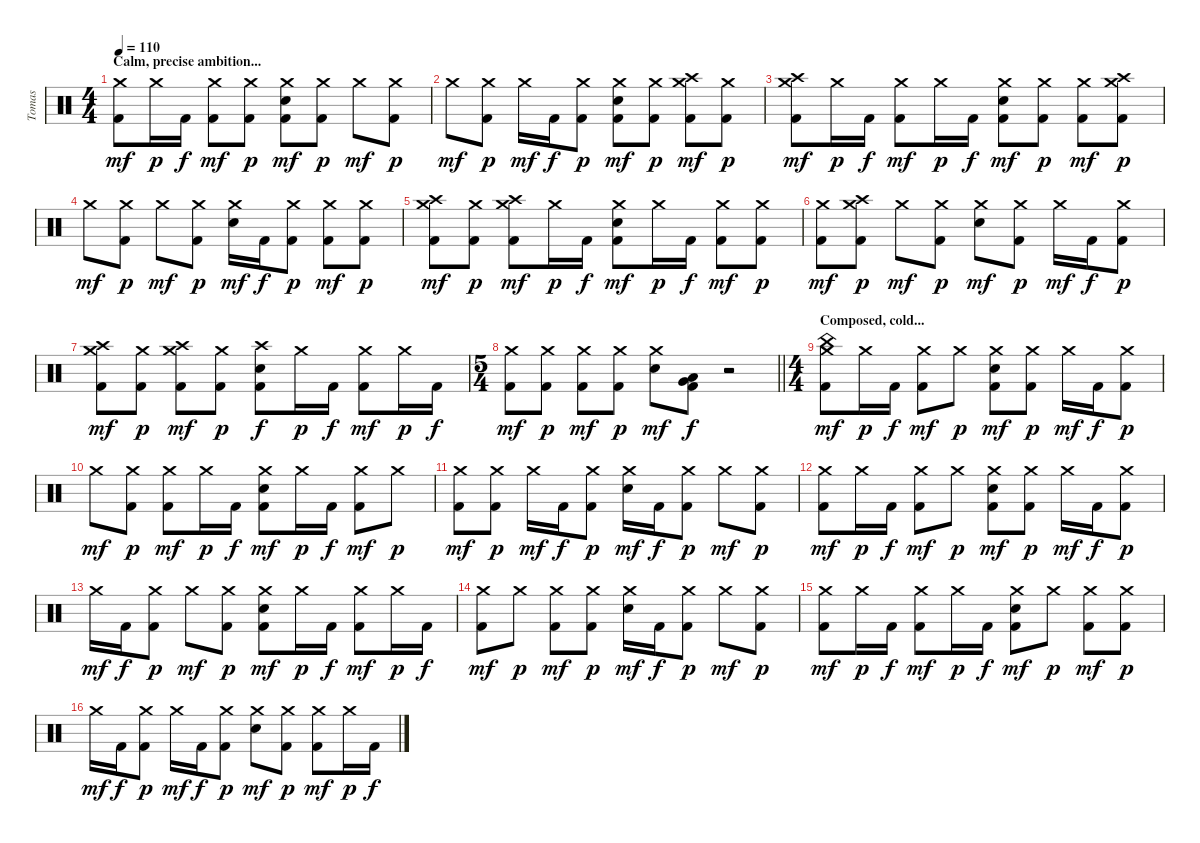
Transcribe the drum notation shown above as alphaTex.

\track ("Tomas" "Tomas") {instrument percussion}
\staff {score}
\articulation defaults
\ts (4 4)
\section ("" "Calm, precise ambition...")
\tempo 110
\clef neutral
\ks c
("Crash medium (hit)" "Kick (hit) 2").8{dy mf} "Crash medium (hit)".16{dy p} "Kick (hit) 2".16{dy f} ("Crash medium (hit)" "Kick (hit) 2").8{dy mf} ("Crash medium (hit)" "Kick (hit) 2").8{dy p} ("Crash medium (hit)" "Electric Snare (hit)" "Kick (hit) 2").8{dy mf} ("Crash medium (hit)" "Kick (hit) 2").8{dy p} "Crash medium (hit)".8{dy mf} ("Crash medium (hit)" "Kick (hit) 2").8{dy p} |
"Crash medium (hit)".8{dy mf} ("Crash medium (hit)" "Kick (hit) 2").8{dy p} "Crash medium (hit)".16{dy mf} "Kick (hit) 2".16{dy f} ("Crash medium (hit)" "Kick (hit) 2").8{dy p} ("Crash medium (hit)" "Electric Snare (hit)" "Kick (hit) 2").8{dy mf} ("Crash medium (hit)" "Kick (hit) 2").8{dy p} ("Crash medium (hit)" "Crash high (hit)" "Kick (hit) 2").8{dy mf} ("Crash medium (hit)" "Kick (hit) 2").8{dy p} |
("Crash medium (hit)" "Crash high (hit)" "Kick (hit) 2").8{dy mf} "Crash medium (hit)".16{dy p} "Kick (hit) 2".16{dy f} ("Crash medium (hit)" "Kick (hit) 2").8{dy mf} "Crash medium (hit)".16{dy p} "Kick (hit) 2".16{dy f} ("Crash medium (hit)" "Electric Snare (hit)" "Kick (hit) 2").8{dy mf} ("Crash medium (hit)" "Kick (hit) 2").8{dy p} ("Crash medium (hit)" "Kick (hit) 2").8{dy mf} ("Crash medium (hit)" "Crash high (hit)" "Kick (hit) 2").8{dy p} |
"Crash medium (hit)".8{dy mf} ("Crash medium (hit)" "Kick (hit) 2").8{dy p} "Crash medium (hit)".8{dy mf} ("Crash medium (hit)" "Kick (hit) 2").8{dy p} ("Crash medium (hit)" "Electric Snare (hit)").16{dy mf} "Kick (hit) 2".16{dy f} ("Crash medium (hit)" "Kick (hit) 2").8{dy p} ("Crash medium (hit)" "Kick (hit) 2").8{dy mf} ("Crash medium (hit)" "Kick (hit) 2").8{dy p} |
("Crash medium (hit)" "Crash high (hit)" "Kick (hit) 2").8{dy mf} ("Crash medium (hit)" "Kick (hit) 2").8{dy p} ("Crash medium (hit)" "Crash high (hit)" "Kick (hit) 2").8{dy mf} "Crash medium (hit)".16{dy p} "Kick (hit) 2".16{dy f} ("Crash medium (hit)" "Electric Snare (hit)" "Kick (hit) 2").8{dy mf} "Crash medium (hit)".16{dy p} "Kick (hit) 2".16{dy f} ("Crash medium (hit)" "Kick (hit) 2").8{dy mf} ("Crash medium (hit)" "Kick (hit) 2").8{dy p} |
("Crash medium (hit)" "Kick (hit) 2").8{dy mf} ("Crash medium (hit)" "Crash high (hit)" "Kick (hit) 2").8{dy p} "Crash medium (hit)".8{dy mf} ("Crash medium (hit)" "Kick (hit) 2").8{dy p} ("Crash medium (hit)" "Electric Snare (hit)").8{dy mf} ("Crash medium (hit)" "Kick (hit) 2").8{dy p} "Crash medium (hit)".16{dy mf} "Kick (hit) 2".16{dy f} ("Crash medium (hit)" "Kick (hit) 2").8{dy p} |
("Crash medium (hit)" "Crash high (hit)" "Kick (hit) 2").8{dy mf} ("Crash medium (hit)" "Kick (hit) 2").8{dy p} ("Crash medium (hit)" "Crash high (hit)" "Kick (hit) 2").8{dy mf} ("Crash medium (hit)" "Kick (hit) 2").8{dy p} ("Crash high (hit)" "Electric Snare (hit)" "Kick (hit) 2").8{dy f} "Crash medium (hit)".16{dy p} "Kick (hit) 2".16{dy f} ("Crash medium (hit)" "Kick (hit) 2").8{dy mf} "Crash medium (hit)".16{dy p} "Kick (hit) 2".16{dy f} |
\ts (5 4)
\barLineRight lightlight
("Crash medium (hit)" "Kick (hit) 2").8{dy mf} ("Crash medium (hit)" "Kick (hit) 2").8{dy p} ("Crash medium (hit)" "Kick (hit) 2").8{dy mf} ("Crash medium (hit)" "Kick (hit) 2").8{dy p} ("Crash medium (hit)" "Electric Snare (hit)").8{dy mf} ("Very Low Tom (hit)" "Low Floor Tom (hit)" "Kick (hit) 2").8{dy f} r.2 |
\ts (4 4)
\section ("" "Composed, cold...")
("Crash medium (hit)" "China (hit)" "Kick (hit) 2").8{dy mf} "Crash medium (hit)".16{dy p} "Kick (hit) 2".16{dy f} ("Crash medium (hit)" "Kick (hit) 2").8{dy mf} "Crash medium (hit)".8{dy p} ("Crash medium (hit)" "Electric Snare (hit)" "Kick (hit) 2").8{dy mf} ("Crash medium (hit)" "Kick (hit) 2").8{dy p} "Crash medium (hit)".16{dy mf} "Kick (hit) 2".16{dy f} ("Crash medium (hit)" "Kick (hit) 2").8{dy p} |
"Crash medium (hit)".8{dy mf} ("Crash medium (hit)" "Kick (hit) 2").8{dy p} ("Crash medium (hit)" "Kick (hit) 2").8{dy mf} "Crash medium (hit)".16{dy p} "Kick (hit) 2".16{dy f} ("Crash medium (hit)" "Electric Snare (hit)" "Kick (hit) 2").8{dy mf} "Crash medium (hit)".16{dy p} "Kick (hit) 2".16{dy f} ("Crash medium (hit)" "Kick (hit) 2").8{dy mf} "Crash medium (hit)".8{dy p} |
("Crash medium (hit)" "Kick (hit) 2").8{dy mf} ("Crash medium (hit)" "Kick (hit) 2").8{dy p} "Crash medium (hit)".16{dy mf} "Kick (hit) 2".16{dy f} ("Crash medium (hit)" "Kick (hit) 2").8{dy p} ("Crash medium (hit)" "Electric Snare (hit)").16{dy mf} "Kick (hit) 2".16{dy f} ("Crash medium (hit)" "Kick (hit) 2").8{dy p} "Crash medium (hit)".8{dy mf} ("Crash medium (hit)" "Kick (hit) 2").8{dy p} |
("Crash medium (hit)" "Kick (hit) 2").8{dy mf} "Crash medium (hit)".16{dy p} "Kick (hit) 2".16{dy f} ("Crash medium (hit)" "Kick (hit) 2").8{dy mf} "Crash medium (hit)".8{dy p} ("Crash medium (hit)" "Electric Snare (hit)" "Kick (hit) 2").8{dy mf} ("Crash medium (hit)" "Kick (hit) 2").8{dy p} "Crash medium (hit)".16{dy mf} "Kick (hit) 2".16{dy f} ("Crash medium (hit)" "Kick (hit) 2").8{dy p} |
"Crash medium (hit)".16{dy mf} "Kick (hit) 2".16{dy f} ("Crash medium (hit)" "Kick (hit) 2").8{dy p} "Crash medium (hit)".8{dy mf} ("Crash medium (hit)" "Kick (hit) 2").8{dy p} ("Crash medium (hit)" "Electric Snare (hit)" "Kick (hit) 2").8{dy mf} "Crash medium (hit)".16{dy p} "Kick (hit) 2".16{dy f} ("Crash medium (hit)" "Kick (hit) 2").8{dy mf} "Crash medium (hit)".16{dy p} "Kick (hit) 2".16{dy f} |
("Crash medium (hit)" "Kick (hit) 2").8{dy mf} "Crash medium (hit)".8{dy p} ("Crash medium (hit)" "Kick (hit) 2").8{dy mf} ("Crash medium (hit)" "Kick (hit) 2").8{dy p} ("Crash medium (hit)" "Electric Snare (hit)").16{dy mf} "Kick (hit) 2".16{dy f} ("Crash medium (hit)" "Kick (hit) 2").8{dy p} "Crash medium (hit)".8{dy mf} ("Crash medium (hit)" "Kick (hit) 2").8{dy p} |
("Crash medium (hit)" "Kick (hit) 2").8{dy mf} "Crash medium (hit)".16{dy p} "Kick (hit) 2".16{dy f} ("Crash medium (hit)" "Kick (hit) 2").8{dy mf} "Crash medium (hit)".16{dy p} "Kick (hit) 2".16{dy f} ("Crash medium (hit)" "Electric Snare (hit)" "Kick (hit) 2").8{dy mf} "Crash medium (hit)".8{dy p} ("Crash medium (hit)" "Kick (hit) 2").8{dy mf} ("Crash medium (hit)" "Kick (hit) 2").8{dy p} |
"Crash medium (hit)".16{dy mf} "Kick (hit) 2".16{dy f} ("Crash medium (hit)" "Kick (hit) 2").8{dy p} "Crash medium (hit)".16{dy mf} "Kick (hit) 2".16{dy f} ("Crash medium (hit)" "Kick (hit) 2").8{dy p} ("Crash medium (hit)" "Electric Snare (hit)").8{dy mf} ("Crash medium (hit)" "Kick (hit) 2").8{dy p} ("Crash medium (hit)" "Kick (hit) 2").8{dy mf} "Crash medium (hit)".16{dy p} "Kick (hit) 2".16{dy f}
